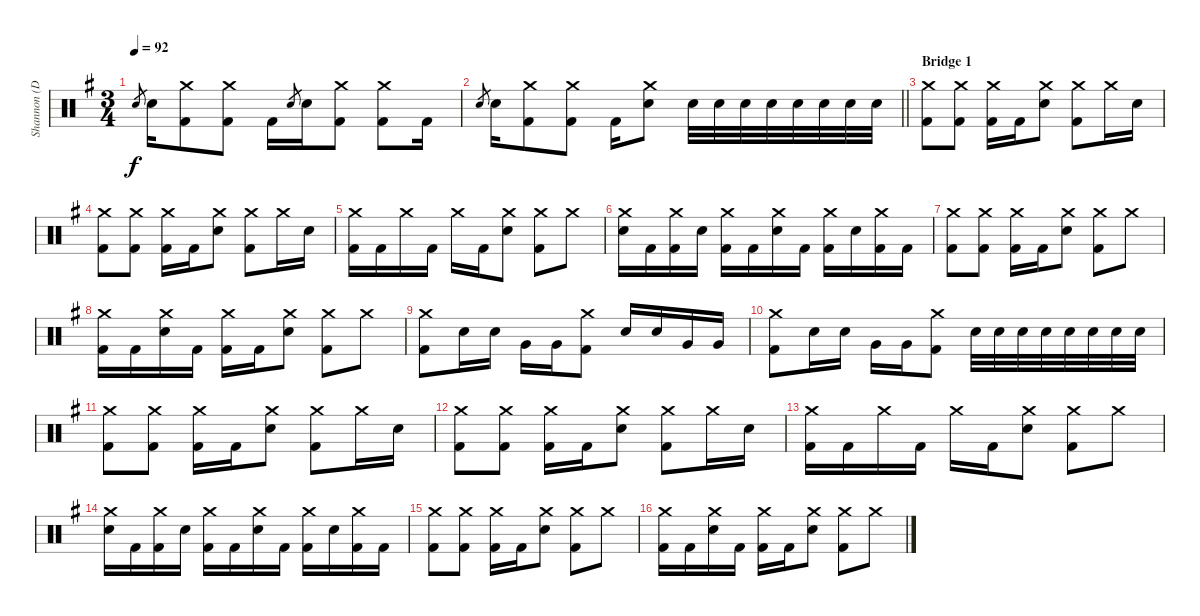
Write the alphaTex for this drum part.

\track ("Shannon (Drums)" "Shannon (D") {instrument percussion}
\staff {score}
\articulation defaults
\ts (3 4)
\tempo 92
\clef neutral
\ks g "Electric Snare (hit)".8{gr dy f} "Electric Snare (hit)".16
("Crash medium (hit)" "Kick (hit) 2").8 ("Crash medium (hit)" "Kick (hit) 2").8 "Kick (hit) 2".16 "Electric Snare (hit)".8{gr} "Electric Snare (hit)".16 ("Crash medium (hit)" "Kick (hit) 2").8 ("Crash medium (hit)" "Kick (hit) 2").8 "Kick (hit) 2".16 |
\barLineRight lightlight "Electric Snare (hit)".8{gr} "Electric Snare (hit)".16
("Crash medium (hit)" "Kick (hit) 2").8 ("Crash medium (hit)" "Kick (hit) 2").8 "Kick (hit) 2".16 ("Crash medium (hit)" "Electric Snare (hit)").8 "Electric Snare (hit)".32 "Electric Snare (hit)".32 "Electric Snare (hit)".32 "Electric Snare (hit)".32 "Electric Snare (hit)".32 "Electric Snare (hit)".32 "Electric Snare (hit)".32 "Electric Snare (hit)".32 |
\section ("" "Bridge 1")
("Crash medium (hit)" "Kick (hit) 2").8 ("Crash medium (hit)" "Kick (hit) 2").8 ("Crash medium (hit)" "Kick (hit) 2").16 "Kick (hit) 2".16 ("Crash medium (hit)" "Electric Snare (hit)").8 ("Crash medium (hit)" "Kick (hit) 2").8 "Crash medium (hit)".16 "Electric Snare (hit)".16 |
("Crash medium (hit)" "Kick (hit) 2").8 ("Crash medium (hit)" "Kick (hit) 2").8 ("Crash medium (hit)" "Kick (hit) 2").16 "Kick (hit) 2".16 ("Crash medium (hit)" "Electric Snare (hit)").8 ("Crash medium (hit)" "Kick (hit) 2").8 "Crash medium (hit)".16 "Electric Snare (hit)".16 |
("Crash medium (hit)" "Kick (hit) 2").16 "Kick (hit) 2".16 "Crash medium (hit)".16 "Kick (hit) 2".16 "Crash medium (hit)".16 "Kick (hit) 2".16 ("Crash medium (hit)" "Electric Snare (hit)").8 ("Crash medium (hit)" "Kick (hit) 2").8 "Crash medium (hit)".8 |
("Crash medium (hit)" "Electric Snare (hit)").16 "Kick (hit) 2".16 ("Crash medium (hit)" "Kick (hit) 2").16 "Electric Snare (hit)".16 ("Crash medium (hit)" "Kick (hit) 2").16 "Kick (hit) 2".16 ("Crash medium (hit)" "Electric Snare (hit)").16 "Kick (hit) 2".16 ("Crash medium (hit)" "Kick (hit) 2").16 "Electric Snare (hit)".16 ("Crash medium (hit)" "Kick (hit) 2").16 "Kick (hit) 2".16 |
("Crash medium (hit)" "Kick (hit) 2").8 ("Crash medium (hit)" "Kick (hit) 2").8 ("Crash medium (hit)" "Kick (hit) 2").16 "Kick (hit) 2".16 ("Crash medium (hit)" "Electric Snare (hit)").8 ("Crash medium (hit)" "Kick (hit) 2").8 "Crash medium (hit)".8 |
("Crash medium (hit)" "Kick (hit) 2").16 "Kick (hit) 2".16 ("Crash medium (hit)" "Electric Snare (hit)").16 "Kick (hit) 2".16 ("Crash medium (hit)" "Kick (hit) 2").16 "Kick (hit) 2".16 ("Crash medium (hit)" "Electric Snare (hit)").8 ("Crash medium (hit)" "Kick (hit) 2").8 "Crash medium (hit)".8 |
("Crash medium (hit)" "Kick (hit) 2").8 "Electric Snare (hit)".16 "Electric Snare (hit)".16 "Very Low Tom (hit)".16 "Very Low Tom (hit)".16 ("Crash medium (hit)" "Kick (hit) 2").8 "Electric Snare (hit)".16 "Electric Snare (hit)".16 "Very Low Tom (hit)".16 "Very Low Tom (hit)".16 |
("Crash medium (hit)" "Kick (hit) 2").8 "Electric Snare (hit)".16 "Electric Snare (hit)".16 "Very Low Tom (hit)".16 "Very Low Tom (hit)".16 ("Crash medium (hit)" "Kick (hit) 2").8 "Electric Snare (hit)".32 "Electric Snare (hit)".32 "Electric Snare (hit)".32 "Electric Snare (hit)".32 "Electric Snare (hit)".32 "Electric Snare (hit)".32 "Electric Snare (hit)".32 "Electric Snare (hit)".32 |
("Crash medium (hit)" "Kick (hit) 2").8 ("Crash medium (hit)" "Kick (hit) 2").8 ("Crash medium (hit)" "Kick (hit) 2").16 "Kick (hit) 2".16 ("Crash medium (hit)" "Electric Snare (hit)").8 ("Crash medium (hit)" "Kick (hit) 2").8 "Crash medium (hit)".16 "Electric Snare (hit)".16 |
("Crash medium (hit)" "Kick (hit) 2").8 ("Crash medium (hit)" "Kick (hit) 2").8 ("Crash medium (hit)" "Kick (hit) 2").16 "Kick (hit) 2".16 ("Crash medium (hit)" "Electric Snare (hit)").8 ("Crash medium (hit)" "Kick (hit) 2").8 "Crash medium (hit)".16 "Electric Snare (hit)".16 |
("Crash medium (hit)" "Kick (hit) 2").16 "Kick (hit) 2".16 "Crash medium (hit)".16 "Kick (hit) 2".16 "Crash medium (hit)".16 "Kick (hit) 2".16 ("Crash medium (hit)" "Electric Snare (hit)").8 ("Crash medium (hit)" "Kick (hit) 2").8 "Crash medium (hit)".8 |
("Crash medium (hit)" "Electric Snare (hit)").16 "Kick (hit) 2".16 ("Crash medium (hit)" "Kick (hit) 2").16 "Electric Snare (hit)".16 ("Crash medium (hit)" "Kick (hit) 2").16 "Kick (hit) 2".16 ("Crash medium (hit)" "Electric Snare (hit)").16 "Kick (hit) 2".16 ("Crash medium (hit)" "Kick (hit) 2").16 "Electric Snare (hit)".16 ("Crash medium (hit)" "Kick (hit) 2").16 "Kick (hit) 2".16 |
("Crash medium (hit)" "Kick (hit) 2").8 ("Crash medium (hit)" "Kick (hit) 2").8 ("Crash medium (hit)" "Kick (hit) 2").16 "Kick (hit) 2".16 ("Crash medium (hit)" "Electric Snare (hit)").8 ("Crash medium (hit)" "Kick (hit) 2").8 "Crash medium (hit)".8 |
("Crash medium (hit)" "Kick (hit) 2").16 "Kick (hit) 2".16 ("Crash medium (hit)" "Electric Snare (hit)").16 "Kick (hit) 2".16 ("Crash medium (hit)" "Kick (hit) 2").16 "Kick (hit) 2".16 ("Crash medium (hit)" "Electric Snare (hit)").8 ("Crash medium (hit)" "Kick (hit) 2").8 "Crash medium (hit)".8
